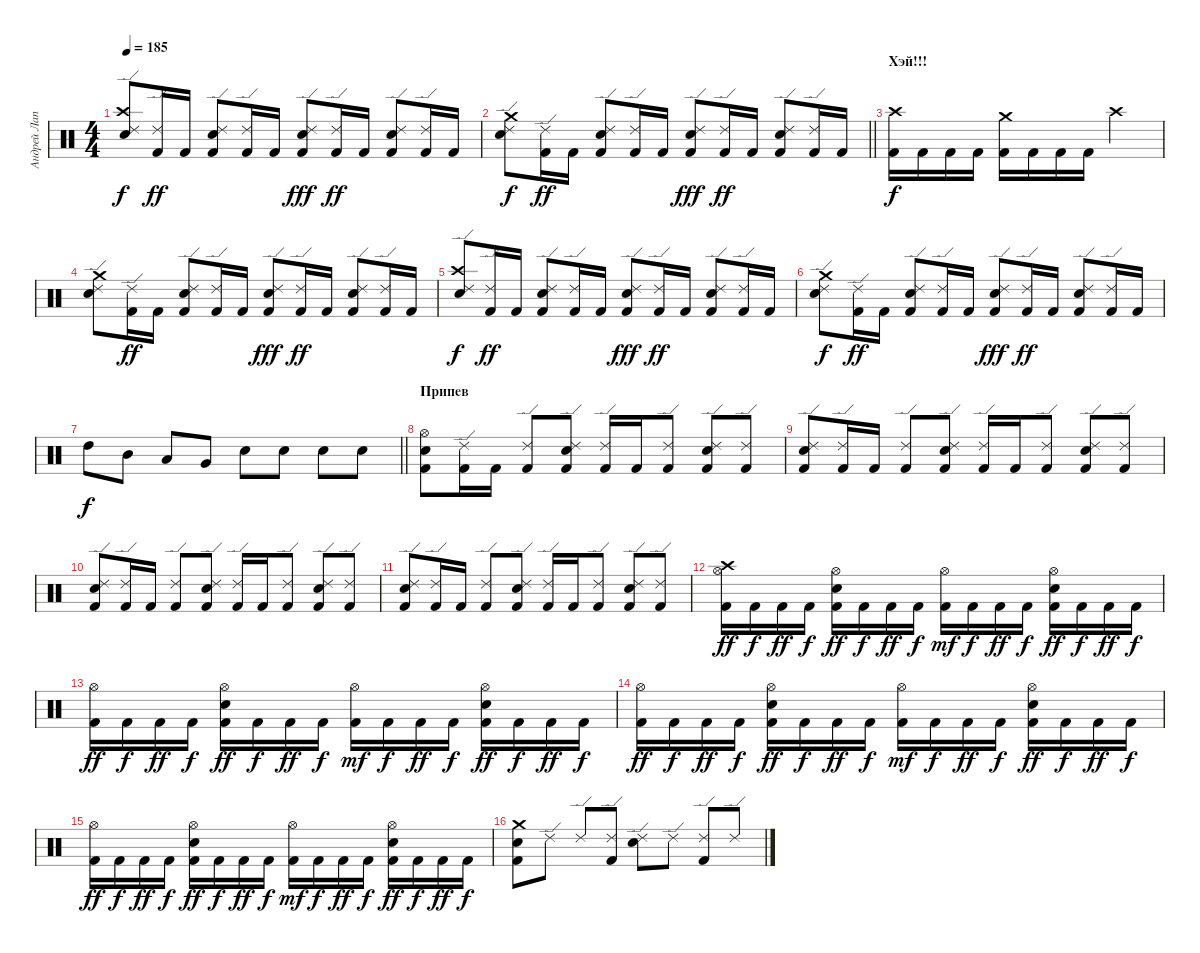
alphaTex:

\track ("Андрей Лаптев" "Андрей Лап") {instrument percussion}
\staff {score}
\articulation defaults
\ts (4 4)
\tempo 185
\clef neutral
\ks c
("Ride (edge) 2" "Crash high (hit)" "Electric Snare (hit)").8{dy f} ("Kick (hit) 2" "Ride (edge) 2").16{dy ff} "Kick (hit) 2".16 ("Kick (hit) 2" "Electric Snare (hit)" "Ride (edge) 2").8 ("Kick (hit) 2" "Ride (edge) 2").16 "Kick (hit) 2".16 ("Kick (hit) 2" "Ride (edge) 2" "Electric Snare (hit)").8{dy fff} ("Kick (hit) 2" "Ride (edge) 2").16{dy ff} "Kick (hit) 2".16 ("Ride (edge) 2" "Electric Snare (hit)" "Kick (hit) 2").8 ("Kick (hit) 2" "Ride (edge) 2").16 "Kick (hit) 2".16 |
\barLineRight lightlight
("Ride (edge) 2" "Crash medium (hit)" "Electric Snare (hit)").8{dy f} ("Kick (hit) 2" "Ride (edge) 2").16{dy ff} "Kick (hit) 2".16 ("Kick (hit) 2" "Electric Snare (hit)" "Ride (edge) 2").8 ("Kick (hit) 2" "Ride (edge) 2").16 "Kick (hit) 2".16 ("Kick (hit) 2" "Ride (edge) 2" "Electric Snare (hit)").8{dy fff} ("Kick (hit) 2" "Ride (edge) 2").16{dy ff} "Kick (hit) 2".16 ("Ride (edge) 2" "Electric Snare (hit)" "Kick (hit) 2").8 ("Kick (hit) 2" "Ride (edge) 2").16 "Kick (hit) 2".16 |
\section ("" "Хэй!!!")
("Kick (hit) 2" "Crash high (hit)").16{dy f} "Kick (hit) 2".16 "Kick (hit) 2".16 "Kick (hit) 2".16 ("Kick (hit) 2" "Crash medium (hit)").16 "Kick (hit) 2".16 "Kick (hit) 2".16 "Kick (hit) 2".16 "Crash high (hit)".2 |
("Ride (edge) 2" "Crash medium (hit)" "Electric Snare (hit)").8 ("Kick (hit) 2" "Ride (edge) 2").16{dy ff} "Kick (hit) 2".16 ("Kick (hit) 2" "Electric Snare (hit)" "Ride (edge) 2").8 ("Kick (hit) 2" "Ride (edge) 2").16 "Kick (hit) 2".16 ("Kick (hit) 2" "Ride (edge) 2" "Electric Snare (hit)").8{dy fff} ("Kick (hit) 2" "Ride (edge) 2").16{dy ff} "Kick (hit) 2".16 ("Ride (edge) 2" "Electric Snare (hit)" "Kick (hit) 2").8 ("Kick (hit) 2" "Ride (edge) 2").16 "Kick (hit) 2".16 |
("Ride (edge) 2" "Crash high (hit)" "Electric Snare (hit)").8{dy f} ("Kick (hit) 2" "Ride (edge) 2").16{dy ff} "Kick (hit) 2".16 ("Kick (hit) 2" "Electric Snare (hit)" "Ride (edge) 2").8 ("Kick (hit) 2" "Ride (edge) 2").16 "Kick (hit) 2".16 ("Kick (hit) 2" "Ride (edge) 2" "Electric Snare (hit)").8{dy fff} ("Kick (hit) 2" "Ride (edge) 2").16{dy ff} "Kick (hit) 2".16 ("Ride (edge) 2" "Electric Snare (hit)" "Kick (hit) 2").8 ("Kick (hit) 2" "Ride (edge) 2").16 "Kick (hit) 2".16 |
("Ride (edge) 2" "Crash medium (hit)" "Electric Snare (hit)").8{dy f} ("Kick (hit) 2" "Ride (edge) 2").16{dy ff} "Kick (hit) 2".16 ("Kick (hit) 2" "Electric Snare (hit)" "Ride (edge) 2").8 ("Kick (hit) 2" "Ride (edge) 2").16 "Kick (hit) 2".16 ("Kick (hit) 2" "Ride (edge) 2" "Electric Snare (hit)").8{dy fff} ("Kick (hit) 2" "Ride (edge) 2").16{dy ff} "Kick (hit) 2".16 ("Ride (edge) 2" "Electric Snare (hit)" "Kick (hit) 2").8 ("Kick (hit) 2" "Ride (edge) 2").16 "Kick (hit) 2".16 |
\barLineRight lightlight "High Tom (hit)".8{dy f} "Mid Tom (hit)".8 "Low Tom (hit)".8 "Very Low Tom (hit)".8 "Electric Snare (hit)".8 "Electric Snare (hit)".8 "Electric Snare (hit)".8 "Electric Snare (hit)".8
|
\section ("" "Припев")
("Hi-Hat (open)" "Electric Snare (hit)" "Kick (hit) 2").8 ("Kick (hit) 2" "Ride (edge) 2").16 "Kick (hit) 2".16 ("Ride (edge) 2" "Kick (hit) 2").8 ("Ride (edge) 2" "Electric Snare (hit)" "Kick (hit) 2").8 ("Kick (hit) 2" "Ride (edge) 2").16 "Kick (hit) 2".16 ("Ride (edge) 2" "Kick (hit) 2").8 ("Ride (edge) 2" "Electric Snare (hit)" "Kick (hit) 2").8 ("Ride (edge) 2" "Kick (hit) 2").8 |
("Ride (edge) 2" "Electric Snare (hit)" "Kick (hit) 2").8 ("Kick (hit) 2" "Ride (edge) 2").16 "Kick (hit) 2".16 ("Ride (edge) 2" "Kick (hit) 2").8 ("Ride (edge) 2" "Electric Snare (hit)" "Kick (hit) 2").8 ("Kick (hit) 2" "Ride (edge) 2").16 "Kick (hit) 2".16 ("Ride (edge) 2" "Kick (hit) 2").8 ("Ride (edge) 2" "Electric Snare (hit)" "Kick (hit) 2").8 ("Ride (edge) 2" "Kick (hit) 2").8 |
("Ride (edge) 2" "Electric Snare (hit)" "Kick (hit) 2").8 ("Kick (hit) 2" "Ride (edge) 2").16 "Kick (hit) 2".16 ("Ride (edge) 2" "Kick (hit) 2").8 ("Ride (edge) 2" "Electric Snare (hit)" "Kick (hit) 2").8 ("Kick (hit) 2" "Ride (edge) 2").16 "Kick (hit) 2".16 ("Ride (edge) 2" "Kick (hit) 2").8 ("Ride (edge) 2" "Electric Snare (hit)" "Kick (hit) 2").8 ("Ride (edge) 2" "Kick (hit) 2").8 |
("Ride (edge) 2" "Electric Snare (hit)" "Kick (hit) 2").8 ("Kick (hit) 2" "Ride (edge) 2").16 "Kick (hit) 2".16 ("Ride (edge) 2" "Kick (hit) 2").8 ("Ride (edge) 2" "Electric Snare (hit)" "Kick (hit) 2").8 ("Kick (hit) 2" "Ride (edge) 2").16 "Kick (hit) 2".16 ("Ride (edge) 2" "Kick (hit) 2").8 ("Ride (edge) 2" "Electric Snare (hit)" "Kick (hit) 2").8 ("Ride (edge) 2" "Kick (hit) 2").8 |
("Crash high (hit)" "Kick (hit) 2" "Hi-Hat (open)").16{dy ff} "Kick (hit) 2".16{dy f} "Kick (hit) 2".16{dy ff} "Kick (hit) 2".16{dy f} ("Hi-Hat (open)" "Electric Snare (hit)" "Kick (hit) 2").16{dy ff} "Kick (hit) 2".16{dy f} "Kick (hit) 2".16{dy ff} "Kick (hit) 2".16{dy f} ("Kick (hit) 2" "Hi-Hat (open)").16{dy mf} "Kick (hit) 2".16{dy f} "Kick (hit) 2".16{dy ff} "Kick (hit) 2".16{dy f} ("Electric Snare (hit)" "Hi-Hat (open)" "Kick (hit) 2").16{dy ff} "Kick (hit) 2".16{dy f} "Kick (hit) 2".16{dy ff} "Kick (hit) 2".16{dy f} |
("Kick (hit) 2" "Hi-Hat (open)").16{dy ff} "Kick (hit) 2".16{dy f} "Kick (hit) 2".16{dy ff} "Kick (hit) 2".16{dy f} ("Hi-Hat (open)" "Electric Snare (hit)" "Kick (hit) 2").16{dy ff} "Kick (hit) 2".16{dy f} "Kick (hit) 2".16{dy ff} "Kick (hit) 2".16{dy f} ("Kick (hit) 2" "Hi-Hat (open)").16{dy mf} "Kick (hit) 2".16{dy f} "Kick (hit) 2".16{dy ff} "Kick (hit) 2".16{dy f} ("Electric Snare (hit)" "Hi-Hat (open)" "Kick (hit) 2").16{dy ff} "Kick (hit) 2".16{dy f} "Kick (hit) 2".16{dy ff} "Kick (hit) 2".16{dy f} |
("Kick (hit) 2" "Hi-Hat (open)").16{dy ff} "Kick (hit) 2".16{dy f} "Kick (hit) 2".16{dy ff} "Kick (hit) 2".16{dy f} ("Hi-Hat (open)" "Electric Snare (hit)" "Kick (hit) 2").16{dy ff} "Kick (hit) 2".16{dy f} "Kick (hit) 2".16{dy ff} "Kick (hit) 2".16{dy f} ("Kick (hit) 2" "Hi-Hat (open)").16{dy mf} "Kick (hit) 2".16{dy f} "Kick (hit) 2".16{dy ff} "Kick (hit) 2".16{dy f} ("Electric Snare (hit)" "Hi-Hat (open)" "Kick (hit) 2").16{dy ff} "Kick (hit) 2".16{dy f} "Kick (hit) 2".16{dy ff} "Kick (hit) 2".16{dy f} |
("Kick (hit) 2" "Hi-Hat (open)").16{dy ff} "Kick (hit) 2".16{dy f} "Kick (hit) 2".16{dy ff} "Kick (hit) 2".16{dy f} ("Hi-Hat (open)" "Electric Snare (hit)" "Kick (hit) 2").16{dy ff} "Kick (hit) 2".16{dy f} "Kick (hit) 2".16{dy ff} "Kick (hit) 2".16{dy f} ("Kick (hit) 2" "Hi-Hat (open)").16{dy mf} "Kick (hit) 2".16{dy f} "Kick (hit) 2".16{dy ff} "Kick (hit) 2".16{dy f} ("Electric Snare (hit)" "Hi-Hat (open)" "Kick (hit) 2").16{dy ff} "Kick (hit) 2".16{dy f} "Kick (hit) 2".16{dy ff} "Kick (hit) 2".16{dy f} |
("Electric Snare (hit)" "Crash medium (hit)" "Kick (hit) 2").8 "Ride (edge) 2".8 "Ride (edge) 2".8 ("Ride (edge) 2" "Kick (hit) 2").8 ("Ride (edge) 2" "Electric Snare (hit)").8 "Ride (edge) 2".8 ("Ride (edge) 2" "Kick (hit) 2").8 "Ride (edge) 2".8
